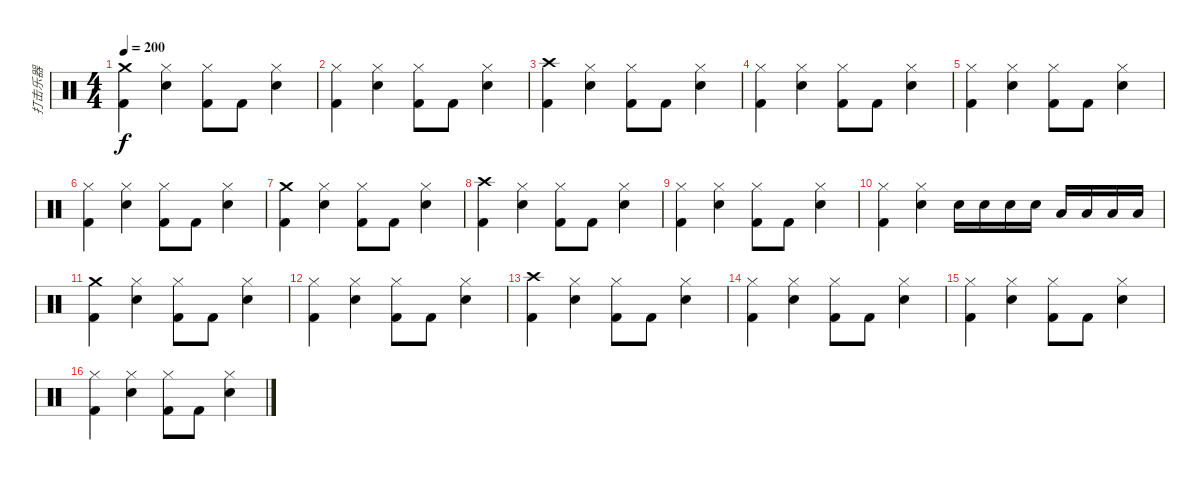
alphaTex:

\track ("打击乐器" "打击乐器") {instrument percussion}
\staff {score}
\articulation defaults
\ts (4 4)
\tempo 200
\clef neutral
\ks c
("Crash medium (hit)" "Kick (hit) 2").4{dy f} ("Hi-Hat (closed)" "Snare (hit) 2").4 ("Hi-Hat (closed)" "Kick (hit) 2").8 "Kick (hit) 2".8 ("Hi-Hat (closed)" "Snare (hit) 2").4 |
("Hi-Hat (closed)" "Kick (hit) 2").4 ("Hi-Hat (closed)" "Snare (hit) 2").4 ("Hi-Hat (closed)" "Kick (hit) 2").8 "Kick (hit) 2".8 ("Hi-Hat (closed)" "Snare (hit) 2").4 |
("Crash high (hit)" "Kick (hit) 2").4 ("Hi-Hat (closed)" "Snare (hit) 2").4 ("Hi-Hat (closed)" "Kick (hit) 2").8 "Kick (hit) 2".8 ("Hi-Hat (closed)" "Snare (hit) 2").4 |
("Hi-Hat (closed)" "Kick (hit) 2").4 ("Hi-Hat (closed)" "Snare (hit) 2").4 ("Hi-Hat (closed)" "Kick (hit) 2").8 "Kick (hit) 2".8 ("Hi-Hat (closed)" "Snare (hit) 2").4 |
("Hi-Hat (closed)" "Kick (hit) 2").4 ("Hi-Hat (closed)" "Snare (hit) 2").4 ("Hi-Hat (closed)" "Kick (hit) 2").8 "Kick (hit) 2".8 ("Hi-Hat (closed)" "Snare (hit) 2").4 |
("Hi-Hat (closed)" "Kick (hit) 2").4 ("Hi-Hat (closed)" "Snare (hit) 2").4 ("Hi-Hat (closed)" "Kick (hit) 2").8 "Kick (hit) 2".8 ("Hi-Hat (closed)" "Snare (hit) 2").4 |
("Crash medium (hit)" "Kick (hit) 2").4 ("Hi-Hat (closed)" "Snare (hit) 2").4 ("Hi-Hat (closed)" "Kick (hit) 2").8 "Kick (hit) 2".8 ("Hi-Hat (closed)" "Snare (hit) 2").4 |
("Crash high (hit)" "Kick (hit) 2").4 ("Hi-Hat (closed)" "Snare (hit) 2").4 ("Hi-Hat (closed)" "Kick (hit) 2").8 "Kick (hit) 2".8 ("Hi-Hat (closed)" "Snare (hit) 2").4 |
("Hi-Hat (closed)" "Kick (hit) 2").4 ("Hi-Hat (closed)" "Snare (hit) 2").4 ("Hi-Hat (closed)" "Kick (hit) 2").8 "Kick (hit) 2".8 ("Hi-Hat (closed)" "Snare (hit) 2").4 |
("Hi-Hat (closed)" "Kick (hit) 2").4 ("Hi-Hat (closed)" "Snare (hit) 2").4 "Snare (hit) 2".16 "Snare (hit) 2".16 "Snare (hit) 2".16 "Snare (hit) 2".16 "Low Floor Tom (hit)".16 "Low Floor Tom (hit)".16 "Low Tom (hit)".16 "Low Tom (hit)".16 |
("Crash medium (hit)" "Kick (hit) 2").4 ("Hi-Hat (closed)" "Snare (hit) 2").4 ("Hi-Hat (closed)" "Kick (hit) 2").8 "Kick (hit) 2".8 ("Hi-Hat (closed)" "Snare (hit) 2").4 |
("Hi-Hat (closed)" "Kick (hit) 2").4 ("Hi-Hat (closed)" "Snare (hit) 2").4 ("Hi-Hat (closed)" "Kick (hit) 2").8 "Kick (hit) 2".8 ("Hi-Hat (closed)" "Snare (hit) 2").4 |
("Crash high (hit)" "Kick (hit) 2").4 ("Hi-Hat (closed)" "Snare (hit) 2").4 ("Hi-Hat (closed)" "Kick (hit) 2").8 "Kick (hit) 2".8 ("Hi-Hat (closed)" "Snare (hit) 2").4 |
("Hi-Hat (closed)" "Kick (hit) 2").4 ("Hi-Hat (closed)" "Snare (hit) 2").4 ("Hi-Hat (closed)" "Kick (hit) 2").8 "Kick (hit) 2".8 ("Hi-Hat (closed)" "Snare (hit) 2").4 |
("Hi-Hat (closed)" "Kick (hit) 2").4 ("Hi-Hat (closed)" "Snare (hit) 2").4 ("Hi-Hat (closed)" "Kick (hit) 2").8 "Kick (hit) 2".8 ("Hi-Hat (closed)" "Snare (hit) 2").4 |
("Hi-Hat (closed)" "Kick (hit) 2").4 ("Hi-Hat (closed)" "Snare (hit) 2").4 ("Hi-Hat (closed)" "Kick (hit) 2").8 "Kick (hit) 2".8 ("Hi-Hat (closed)" "Snare (hit) 2").4
